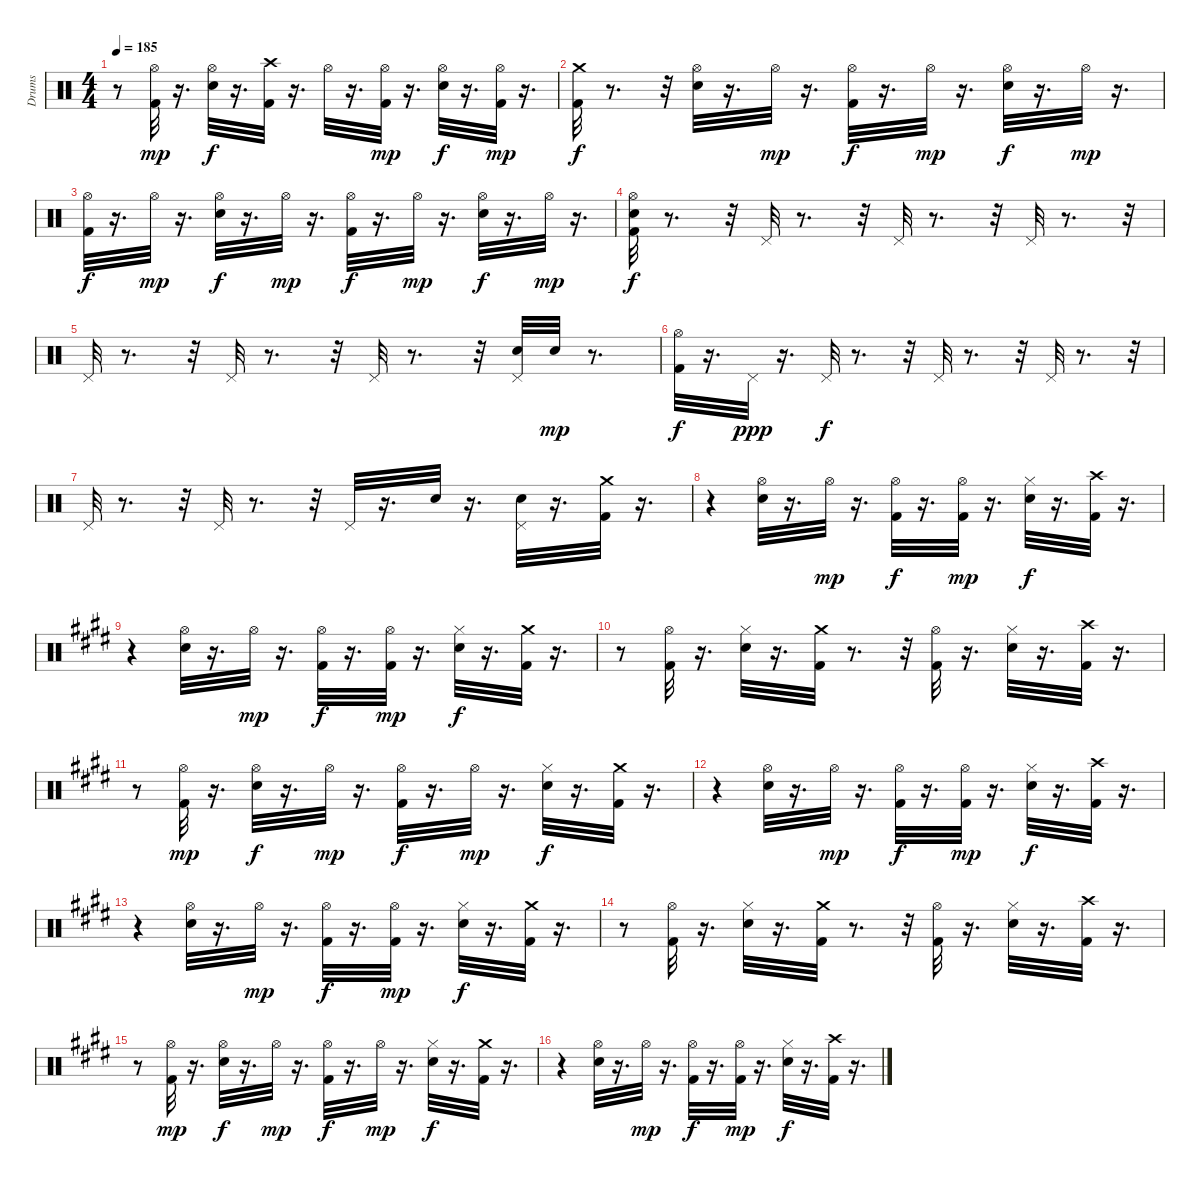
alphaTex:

\track ("Drums" "Drums") {instrument percussion}
\staff {score}
\articulation defaults
\ts (4 4)
\tempo 185
\clef neutral
\ks c
r.8{dy f} ("Hi-Hat (open)" "Kick (hit) 2").32{dy mp} r.16{d} ("Hi-Hat (open)" "Electric Snare (hit)").32{dy f} r.16{d} ("Crash high (hit)" "Kick (hit) 2").32 r.16{d} "Hi-Hat (open)".32 r.16{d} ("Hi-Hat (open)" "Kick (hit) 2").32{dy mp} r.16{d} ("Hi-Hat (open)" "Electric Snare (hit)").32{dy f} r.16{d} ("Hi-Hat (open)" "Kick (hit) 2").32{dy mp} r.16{d} |
("Crash medium (hit)" "Kick (hit) 2").32{dy f} r.8{d} r.32 ("Hi-Hat (open)" "Electric Snare (hit)").32 r.16{d} "Hi-Hat (open)".32{dy mp} r.16{d} ("Hi-Hat (open)" "Kick (hit) 2").32{dy f} r.16{d} "Hi-Hat (open)".32{dy mp} r.16{d} ("Hi-Hat (open)" "Electric Snare (hit)").32{dy f} r.16{d} "Hi-Hat (open)".32{dy mp} r.16{d} |
("Hi-Hat (open)" "Kick (hit) 2").32{dy f} r.16{d} "Hi-Hat (open)".32{dy mp} r.16{d} ("Hi-Hat (open)" "Electric Snare (hit)").32{dy f} r.16{d} "Hi-Hat (open)".32{dy mp} r.16{d} ("Hi-Hat (open)" "Kick (hit) 2").32{dy f} r.16{d} "Hi-Hat (open)".32{dy mp} r.16{d} ("Hi-Hat (open)" "Electric Snare (hit)").32{dy f} r.16{d} "Hi-Hat (open)".32{dy mp} r.16{d} |
("Electric Snare (hit)" "Hi-Hat (open)" "Kick (hit) 2").32{dy f} r.8{d} r.32 "Pedal Hi-Hat (hit)".32 r.8{d} r.32 "Pedal Hi-Hat (hit)".32 r.8{d} r.32 "Pedal Hi-Hat (hit)".32 r.8{d} r.32 |
"Pedal Hi-Hat (hit)".32 r.8{d} r.32 "Pedal Hi-Hat (hit)".32 r.8{d} r.32 "Pedal Hi-Hat (hit)".32 r.8{d} r.32 ("Electric Snare (hit)" "Pedal Hi-Hat (hit)").32 "Snare (hit) 2".32{dy mp} r.8{d} |
("Hi-Hat (open)" "Kick (hit) 2").32{dy f} r.16{d} "Pedal Hi-Hat (hit)".32{dy ppp} r.16{d} "Pedal Hi-Hat (hit)".32{dy f} r.8{d} r.32 "Pedal Hi-Hat (hit)".32 r.8{d} r.32 "Pedal Hi-Hat (hit)".32 r.8{d} r.32 |
"Pedal Hi-Hat (hit)".32 r.8{d} r.32 "Pedal Hi-Hat (hit)".32 r.8{d} r.32 "Pedal Hi-Hat (hit)".32 r.16{d} "Electric Snare (hit)".32 r.16{d} ("Electric Snare (hit)" "Pedal Hi-Hat (hit)").32 r.16{d} ("Crash medium (hit)" "Kick (hit) 2").32 r.16{d} |
r.4 ("Electric Snare (hit)" "Hi-Hat (open)").32 r.16{d} "Hi-Hat (open)".32{dy mp} r.16{d} ("Hi-Hat (open)" "Kick (hit) 2").32{dy f} r.16{d} ("Kick (hit) 2" "Hi-Hat (open)").32{dy mp} r.16{d} ("Hi-Hat (closed)" "Electric Snare (hit)").32{dy f} r.16{d} ("Crash high (hit)" "Kick (hit) 2").32 r.16{d} |
\ks c#minor
r.4 ("Hi-Hat (open)" "Electric Snare (hit)").32 r.16{d} "Hi-Hat (open)".32{dy mp} r.16{d} ("Hi-Hat (open)" "Kick (hit) 2").32{dy f} r.16{d} ("Hi-Hat (open)" "Kick (hit) 2").32{dy mp} r.16{d} ("Electric Snare (hit)" "Hi-Hat (closed)").32{dy f} r.16{d} ("Crash medium (hit)" "Kick (hit) 2").32 r.16{d} |
\ks e
r.8 ("Kick (hit) 2" "Hi-Hat (open)").32 r.16{d} ("Hi-Hat (closed)" "Electric Snare (hit)").32 r.16{d} ("Crash medium (hit)" "Kick (hit) 2").32 r.8{d} r.32 ("Kick (hit) 2" "Hi-Hat (open)").32 r.16{d} ("Hi-Hat (closed)" "Electric Snare (hit)").32 r.16{d} ("Crash high (hit)" "Kick (hit) 2").32 r.16{d} |
\ks c#minor
r.8 ("Hi-Hat (open)" "Kick (hit) 2").32{dy mp} r.16{d} ("Hi-Hat (open)" "Electric Snare (hit)").32{dy f} r.16{d} "Hi-Hat (open)".32{dy mp} r.16{d} ("Hi-Hat (open)" "Kick (hit) 2").32{dy f} r.16{d} "Hi-Hat (open)".32{dy mp} r.16{d} ("Hi-Hat (closed)" "Electric Snare (hit)").32{dy f} r.16{d} ("Crash medium (hit)" "Kick (hit) 2").32 r.16{d} |
\ks e
r.4 ("Electric Snare (hit)" "Hi-Hat (open)").32 r.16{d} "Hi-Hat (open)".32{dy mp} r.16{d} ("Hi-Hat (open)" "Kick (hit) 2").32{dy f} r.16{d} ("Kick (hit) 2" "Hi-Hat (open)").32{dy mp} r.16{d} ("Hi-Hat (closed)" "Electric Snare (hit)").32{dy f} r.16{d} ("Crash high (hit)" "Kick (hit) 2").32 r.16{d} |
\ks c#minor
r.4 ("Hi-Hat (open)" "Electric Snare (hit)").32 r.16{d} "Hi-Hat (open)".32{dy mp} r.16{d} ("Hi-Hat (open)" "Kick (hit) 2").32{dy f} r.16{d} ("Hi-Hat (open)" "Kick (hit) 2").32{dy mp} r.16{d} ("Electric Snare (hit)" "Hi-Hat (closed)").32{dy f} r.16{d} ("Crash medium (hit)" "Kick (hit) 2").32 r.16{d} |
\ks e
r.8 ("Kick (hit) 2" "Hi-Hat (open)").32 r.16{d} ("Hi-Hat (closed)" "Electric Snare (hit)").32 r.16{d} ("Crash medium (hit)" "Kick (hit) 2").32 r.8{d} r.32 ("Kick (hit) 2" "Hi-Hat (open)").32 r.16{d} ("Hi-Hat (closed)" "Electric Snare (hit)").32 r.16{d} ("Crash high (hit)" "Kick (hit) 2").32 r.16{d} |
\ks c#minor
r.8 ("Hi-Hat (open)" "Kick (hit) 2").32{dy mp} r.16{d} ("Hi-Hat (open)" "Electric Snare (hit)").32{dy f} r.16{d} "Hi-Hat (open)".32{dy mp} r.16{d} ("Hi-Hat (open)" "Kick (hit) 2").32{dy f} r.16{d} "Hi-Hat (open)".32{dy mp} r.16{d} ("Hi-Hat (closed)" "Electric Snare (hit)").32{dy f} r.16{d} ("Crash medium (hit)" "Kick (hit) 2").32 r.16{d} |
r.4 ("Electric Snare (hit)" "Hi-Hat (open)").32 r.16{d} "Hi-Hat (open)".32{dy mp} r.16{d} ("Hi-Hat (open)" "Kick (hit) 2").32{dy f} r.16{d} ("Kick (hit) 2" "Hi-Hat (open)").32{dy mp} r.16{d} ("Hi-Hat (closed)" "Electric Snare (hit)").32{dy f} r.16{d} ("Crash high (hit)" "Kick (hit) 2").32 r.16{d}
